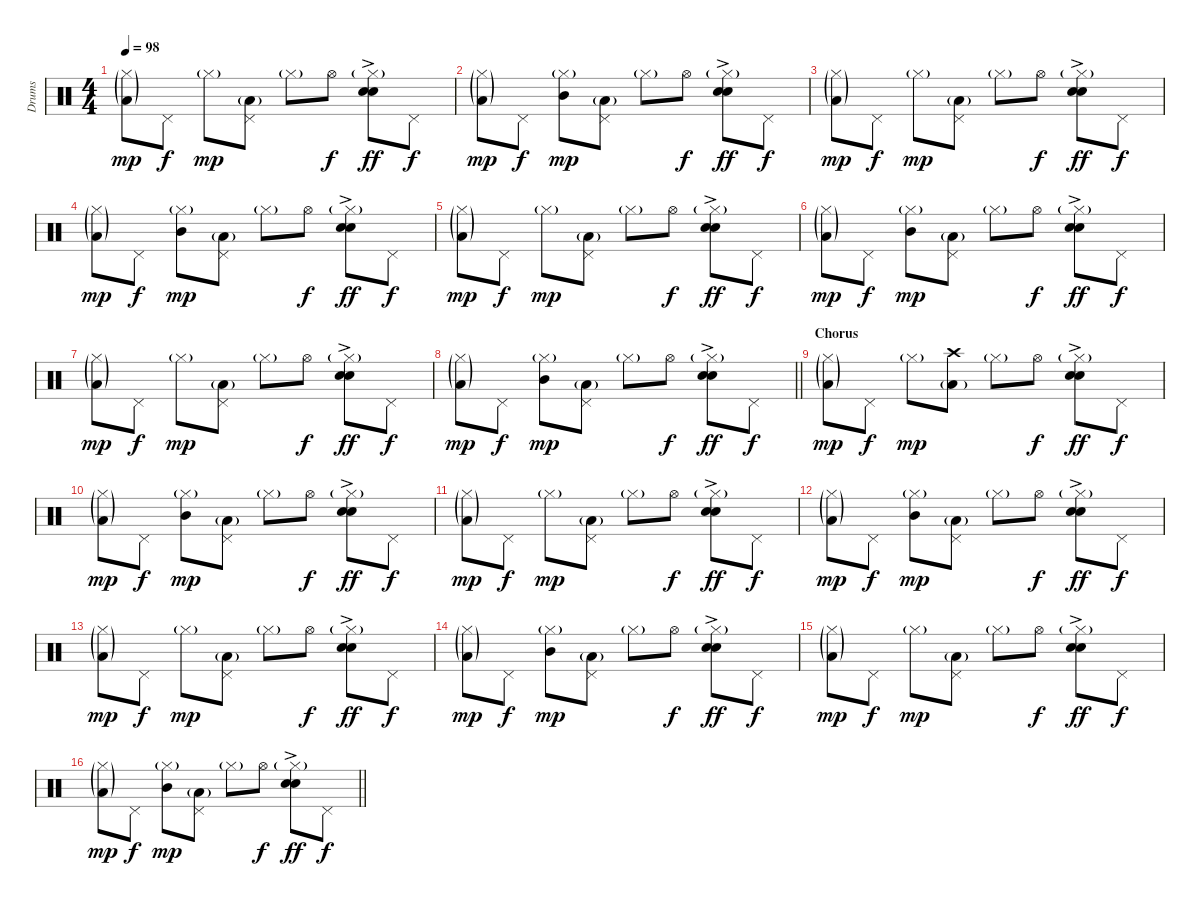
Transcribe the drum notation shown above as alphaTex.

\track ("Drums" "Drums") {instrument percussion}
\staff {score}
\articulation defaults
\ts (4 4)
\tempo 98
\clef neutral
\ks c
("Hi-Hat (closed)"{g} "Low Tom (hit)"{g}).8{dy mp} "Pedal Hi-Hat (hit)".8{dy f} "Hi-Hat (closed)"{g}.8{dy mp} ("Pedal Hi-Hat (hit)" "Low Tom (hit)"{g}).8 "Hi-Hat (closed)"{g}.8 "Hi-Hat (open)".8{dy f} ("Hi-Hat (closed)"{g} "Snare (hit) 2"{ac} "Snare (hit) 2"{ac}).8{dy ff} "Pedal Hi-Hat (hit)".8{dy f} |
("Hi-Hat (closed)"{g} "Low Tom (hit)"{g}).8{dy mp} "Pedal Hi-Hat (hit)".8{dy f} ("Hi-Hat (closed)"{g} "Mid Tom (hit)").8{dy mp} ("Pedal Hi-Hat (hit)" "Low Tom (hit)"{g}).8 "Hi-Hat (closed)"{g}.8 "Hi-Hat (open)".8{dy f} ("Hi-Hat (closed)"{g} "Snare (hit) 2"{ac} "Snare (hit) 2"{ac}).8{dy ff} "Pedal Hi-Hat (hit)".8{dy f} |
("Hi-Hat (closed)"{g} "Low Tom (hit)"{g}).8{dy mp} "Pedal Hi-Hat (hit)".8{dy f} "Hi-Hat (closed)"{g}.8{dy mp} ("Pedal Hi-Hat (hit)" "Low Tom (hit)"{g}).8 "Hi-Hat (closed)"{g}.8 "Hi-Hat (open)".8{dy f} ("Hi-Hat (closed)"{g} "Snare (hit) 2"{ac} "Snare (hit) 2"{ac}).8{dy ff} "Pedal Hi-Hat (hit)".8{dy f} |
("Hi-Hat (closed)"{g} "Low Tom (hit)"{g}).8{dy mp} "Pedal Hi-Hat (hit)".8{dy f} ("Hi-Hat (closed)"{g} "Mid Tom (hit)").8{dy mp} ("Pedal Hi-Hat (hit)" "Low Tom (hit)"{g}).8 "Hi-Hat (closed)"{g}.8 "Hi-Hat (open)".8{dy f} ("Hi-Hat (closed)"{g} "Snare (hit) 2"{ac} "Snare (hit) 2"{ac}).8{dy ff} "Pedal Hi-Hat (hit)".8{dy f} |
("Hi-Hat (closed)"{g} "Low Tom (hit)"{g}).8{dy mp} "Pedal Hi-Hat (hit)".8{dy f} "Hi-Hat (closed)"{g}.8{dy mp} ("Pedal Hi-Hat (hit)" "Low Tom (hit)"{g}).8 "Hi-Hat (closed)"{g}.8 "Hi-Hat (open)".8{dy f} ("Hi-Hat (closed)"{g} "Snare (hit) 2"{ac} "Snare (hit) 2"{ac}).8{dy ff} "Pedal Hi-Hat (hit)".8{dy f} |
("Hi-Hat (closed)"{g} "Low Tom (hit)"{g}).8{dy mp} "Pedal Hi-Hat (hit)".8{dy f} ("Hi-Hat (closed)"{g} "Mid Tom (hit)").8{dy mp} ("Pedal Hi-Hat (hit)" "Low Tom (hit)"{g}).8 "Hi-Hat (closed)"{g}.8 "Hi-Hat (open)".8{dy f} ("Hi-Hat (closed)"{g} "Snare (hit) 2"{ac} "Snare (hit) 2"{ac}).8{dy ff} "Pedal Hi-Hat (hit)".8{dy f} |
("Hi-Hat (closed)"{g} "Low Tom (hit)"{g}).8{dy mp} "Pedal Hi-Hat (hit)".8{dy f} "Hi-Hat (closed)"{g}.8{dy mp} ("Pedal Hi-Hat (hit)" "Low Tom (hit)"{g}).8 "Hi-Hat (closed)"{g}.8 "Hi-Hat (open)".8{dy f} ("Hi-Hat (closed)"{g} "Snare (hit) 2"{ac} "Snare (hit) 2"{ac}).8{dy ff} "Pedal Hi-Hat (hit)".8{dy f} |
\barLineRight lightlight
("Hi-Hat (closed)"{g} "Low Tom (hit)"{g}).8{dy mp} "Pedal Hi-Hat (hit)".8{dy f} ("Hi-Hat (closed)"{g} "Mid Tom (hit)").8{dy mp} ("Pedal Hi-Hat (hit)" "Low Tom (hit)"{g}).8 "Hi-Hat (closed)"{g}.8 "Hi-Hat (open)".8{dy f} ("Hi-Hat (closed)"{g} "Snare (hit) 2"{ac} "Snare (hit) 2"{ac}).8{dy ff} "Pedal Hi-Hat (hit)".8{dy f} |
\section ("" "Chorus")
("Hi-Hat (closed)"{g} "Low Tom (hit)"{g}).8{dy mp} "Pedal Hi-Hat (hit)".8{dy f} "Hi-Hat (closed)"{g}.8{dy mp} ("Crash high (hit)" "Low Tom (hit)"{g}).8 "Hi-Hat (closed)"{g}.8 "Hi-Hat (open)".8{dy f} ("Hi-Hat (closed)"{g} "Snare (hit) 2"{ac} "Snare (hit) 2"{ac}).8{dy ff} "Pedal Hi-Hat (hit)".8{dy f} |
("Hi-Hat (closed)"{g} "Low Tom (hit)"{g}).8{dy mp} "Pedal Hi-Hat (hit)".8{dy f} ("Hi-Hat (closed)"{g} "Mid Tom (hit)").8{dy mp} ("Pedal Hi-Hat (hit)" "Low Tom (hit)"{g}).8 "Hi-Hat (closed)"{g}.8 "Hi-Hat (open)".8{dy f} ("Hi-Hat (closed)"{g} "Snare (hit) 2"{ac} "Snare (hit) 2"{ac}).8{dy ff} "Pedal Hi-Hat (hit)".8{dy f} |
("Hi-Hat (closed)"{g} "Low Tom (hit)"{g}).8{dy mp} "Pedal Hi-Hat (hit)".8{dy f} "Hi-Hat (closed)"{g}.8{dy mp} ("Pedal Hi-Hat (hit)" "Low Tom (hit)"{g}).8 "Hi-Hat (closed)"{g}.8 "Hi-Hat (open)".8{dy f} ("Hi-Hat (closed)"{g} "Snare (hit) 2"{ac} "Snare (hit) 2"{ac}).8{dy ff} "Pedal Hi-Hat (hit)".8{dy f} |
("Hi-Hat (closed)"{g} "Low Tom (hit)"{g}).8{dy mp} "Pedal Hi-Hat (hit)".8{dy f} ("Hi-Hat (closed)"{g} "Mid Tom (hit)").8{dy mp} ("Pedal Hi-Hat (hit)" "Low Tom (hit)"{g}).8 "Hi-Hat (closed)"{g}.8 "Hi-Hat (open)".8{dy f} ("Hi-Hat (closed)"{g} "Snare (hit) 2"{ac} "Snare (hit) 2"{ac}).8{dy ff} "Pedal Hi-Hat (hit)".8{dy f} |
("Hi-Hat (closed)"{g} "Low Tom (hit)"{g}).8{dy mp} "Pedal Hi-Hat (hit)".8{dy f} "Hi-Hat (closed)"{g}.8{dy mp} ("Pedal Hi-Hat (hit)" "Low Tom (hit)"{g}).8 "Hi-Hat (closed)"{g}.8 "Hi-Hat (open)".8{dy f} ("Hi-Hat (closed)"{g} "Snare (hit) 2"{ac} "Snare (hit) 2"{ac}).8{dy ff} "Pedal Hi-Hat (hit)".8{dy f} |
("Hi-Hat (closed)"{g} "Low Tom (hit)"{g}).8{dy mp} "Pedal Hi-Hat (hit)".8{dy f} ("Hi-Hat (closed)"{g} "Mid Tom (hit)").8{dy mp} ("Pedal Hi-Hat (hit)" "Low Tom (hit)"{g}).8 "Hi-Hat (closed)"{g}.8 "Hi-Hat (open)".8{dy f} ("Hi-Hat (closed)"{g} "Snare (hit) 2"{ac} "Snare (hit) 2"{ac}).8{dy ff} "Pedal Hi-Hat (hit)".8{dy f} |
("Hi-Hat (closed)"{g} "Low Tom (hit)"{g}).8{dy mp} "Pedal Hi-Hat (hit)".8{dy f} "Hi-Hat (closed)"{g}.8{dy mp} ("Pedal Hi-Hat (hit)" "Low Tom (hit)"{g}).8 "Hi-Hat (closed)"{g}.8 "Hi-Hat (open)".8{dy f} ("Hi-Hat (closed)"{g} "Snare (hit) 2"{ac} "Snare (hit) 2"{ac}).8{dy ff} "Pedal Hi-Hat (hit)".8{dy f} |
\barLineRight lightlight
("Hi-Hat (closed)"{g} "Low Tom (hit)"{g}).8{dy mp} "Pedal Hi-Hat (hit)".8{dy f} ("Hi-Hat (closed)"{g} "Mid Tom (hit)").8{dy mp} ("Pedal Hi-Hat (hit)" "Low Tom (hit)"{g}).8 "Hi-Hat (closed)"{g}.8 "Hi-Hat (open)".8{dy f} ("Hi-Hat (closed)"{g} "Snare (hit) 2"{ac} "Snare (hit) 2"{ac}).8{dy ff} "Pedal Hi-Hat (hit)".8{dy f}
